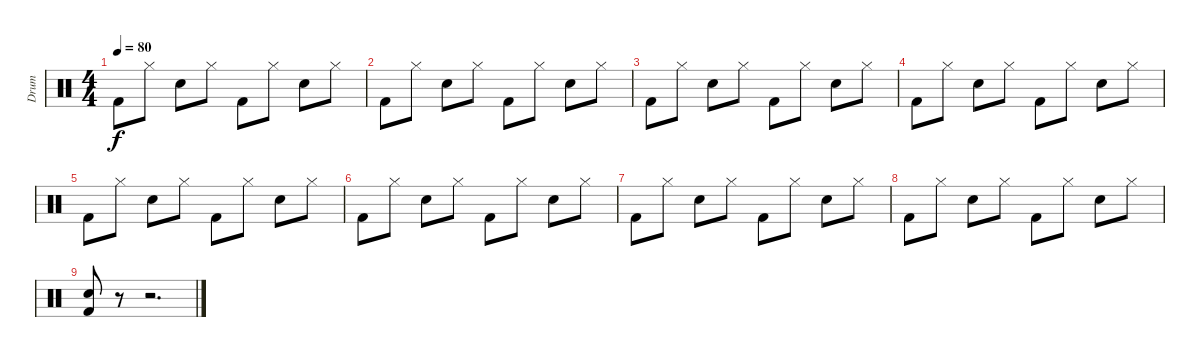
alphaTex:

\track ("Drum" "Drum") {instrument percussion}
\staff {score}
\articulation defaults
\ts (4 4)
\tempo 80
\clef neutral
\ks c "Kick (hit) 2".8{dy f} "Hi-Hat (closed)".8 "Electric Snare (hit)".8 "Hi-Hat (closed)".8 "Kick (hit) 2".8 "Hi-Hat (closed)".8 "Electric Snare (hit)".8 "Hi-Hat (closed)".8
|
"Kick (hit) 2".8 "Hi-Hat (closed)".8 "Electric Snare (hit)".8 "Hi-Hat (closed)".8 "Kick (hit) 2".8 "Hi-Hat (closed)".8 "Electric Snare (hit)".8 "Hi-Hat (closed)".8 |
"Kick (hit) 2".8 "Hi-Hat (closed)".8 "Electric Snare (hit)".8 "Hi-Hat (closed)".8 "Kick (hit) 2".8 "Hi-Hat (closed)".8 "Electric Snare (hit)".8 "Hi-Hat (closed)".8 |
"Kick (hit) 2".8 "Hi-Hat (closed)".8 "Electric Snare (hit)".8 "Hi-Hat (closed)".8 "Kick (hit) 2".8 "Hi-Hat (closed)".8 "Electric Snare (hit)".8 "Hi-Hat (closed)".8 |
"Kick (hit) 2".8 "Hi-Hat (closed)".8 "Electric Snare (hit)".8 "Hi-Hat (closed)".8 "Kick (hit) 2".8 "Hi-Hat (closed)".8 "Electric Snare (hit)".8 "Hi-Hat (closed)".8 |
"Kick (hit) 2".8 "Hi-Hat (closed)".8 "Electric Snare (hit)".8 "Hi-Hat (closed)".8 "Kick (hit) 2".8 "Hi-Hat (closed)".8 "Electric Snare (hit)".8 "Hi-Hat (closed)".8 |
"Kick (hit) 2".8 "Hi-Hat (closed)".8 "Electric Snare (hit)".8 "Hi-Hat (closed)".8 "Kick (hit) 2".8 "Hi-Hat (closed)".8 "Electric Snare (hit)".8 "Hi-Hat (closed)".8 |
"Kick (hit) 2".8 "Hi-Hat (closed)".8 "Electric Snare (hit)".8 "Hi-Hat (closed)".8 "Kick (hit) 2".8 "Hi-Hat (closed)".8 "Electric Snare (hit)".8 "Hi-Hat (closed)".8 |
("Electric Snare (hit)" "Kick (hit) 2").8 r.8 r.2{d}
